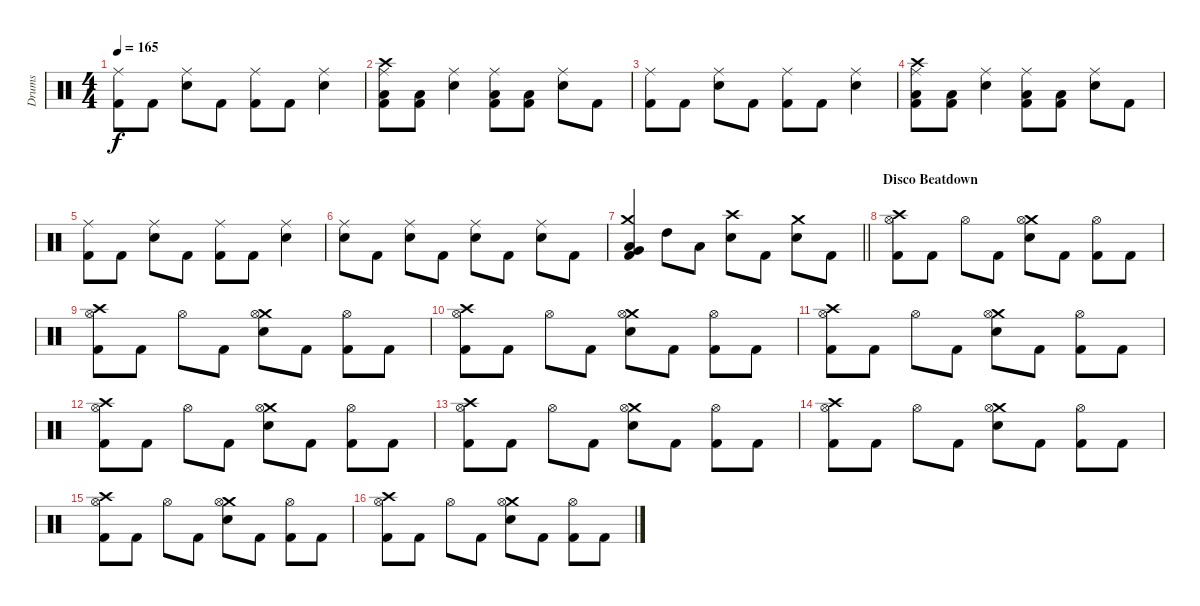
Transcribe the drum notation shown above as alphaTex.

\track ("Drums" "Drums") {instrument percussion}
\staff {score}
\articulation defaults
\ts (4 4)
\tempo 165
\clef neutral
\ks c
("Ride (middle)" "Kick (hit) 2").8{dy f} "Kick (hit) 2".8 ("Ride (middle)" "Snare (hit) 2").8 "Kick (hit) 2".8 ("Ride (middle)" "Kick (hit) 2").8 "Kick (hit) 2".8 ("Ride (middle)" "Snare (hit) 2").4 |
("Crash high (hit)" "Ride (middle)" "Low Floor Tom (hit)" "Kick (hit) 2").8 ("Low Floor Tom (hit)" "Kick (hit) 2").8 ("Ride (middle)" "Snare (hit) 2").4 ("Ride (middle)" "Low Floor Tom (hit)" "Kick (hit) 2").8 ("Low Floor Tom (hit)" "Kick (hit) 2").8 ("Ride (middle)" "Snare (hit) 2").8 "Kick (hit) 2".8 |
("Ride (middle)" "Kick (hit) 2").8 "Kick (hit) 2".8 ("Ride (middle)" "Snare (hit) 2").8 "Kick (hit) 2".8 ("Ride (middle)" "Kick (hit) 2").8 "Kick (hit) 2".8 ("Ride (middle)" "Snare (hit) 2").4 |
("Crash high (hit)" "Ride (middle)" "Low Floor Tom (hit)" "Kick (hit) 2").8 ("Low Floor Tom (hit)" "Kick (hit) 2").8 ("Ride (middle)" "Snare (hit) 2").4 ("Ride (middle)" "Low Floor Tom (hit)" "Kick (hit) 2").8 ("Low Floor Tom (hit)" "Kick (hit) 2").8 ("Ride (middle)" "Snare (hit) 2").8 "Kick (hit) 2".8 |
("Ride (middle)" "Kick (hit) 2").8 "Kick (hit) 2".8 ("Ride (middle)" "Snare (hit) 2").8 "Kick (hit) 2".8 ("Ride (middle)" "Kick (hit) 2").8 "Kick (hit) 2".8 ("Ride (middle)" "Snare (hit) 2").4 |
("Ride (middle)" "Snare (hit) 2").8 "Kick (hit) 2".8 ("Ride (middle)" "Snare (hit) 2").8 "Kick (hit) 2".8 ("Ride (middle)" "Snare (hit) 2").8 "Kick (hit) 2".8 ("Ride (middle)" "Snare (hit) 2").8 "Kick (hit) 2".8 |
\barLineRight lightlight
("Crash medium (hit)" "Very Low Tom (hit)" "Low Floor Tom (hit)" "Kick (hit) 2").4 "High Tom (hit)".8 "Low Tom (hit)".8 ("Crash high (hit)" "Snare (hit) 2").8 "Kick (hit) 2".8 ("Crash medium (hit)" "Snare (hit) 2").8 "Kick (hit) 2".8 |
\section ("" "Disco Beatdown")
("Crash high (hit)" "Hi-Hat (open)" "Kick (hit) 2").8 "Kick (hit) 2".8 "Hi-Hat (open)".8 "Kick (hit) 2".8 ("Crash medium (hit)" "Hi-Hat (open)" "Snare (hit) 2").8 "Kick (hit) 2".8 ("Hi-Hat (open)" "Kick (hit) 2").8 "Kick (hit) 2".8 |
("Crash high (hit)" "Hi-Hat (open)" "Kick (hit) 2").8 "Kick (hit) 2".8 "Hi-Hat (open)".8 "Kick (hit) 2".8 ("Crash medium (hit)" "Hi-Hat (open)" "Snare (hit) 2").8 "Kick (hit) 2".8 ("Hi-Hat (open)" "Kick (hit) 2").8 "Kick (hit) 2".8 |
("Crash high (hit)" "Hi-Hat (open)" "Kick (hit) 2").8 "Kick (hit) 2".8 "Hi-Hat (open)".8 "Kick (hit) 2".8 ("Crash medium (hit)" "Hi-Hat (open)" "Snare (hit) 2").8 "Kick (hit) 2".8 ("Hi-Hat (open)" "Kick (hit) 2").8 "Kick (hit) 2".8 |
("Crash high (hit)" "Hi-Hat (open)" "Kick (hit) 2").8 "Kick (hit) 2".8 "Hi-Hat (open)".8 "Kick (hit) 2".8 ("Crash medium (hit)" "Hi-Hat (open)" "Snare (hit) 2").8 "Kick (hit) 2".8 ("Hi-Hat (open)" "Kick (hit) 2").8 "Kick (hit) 2".8 |
("Crash high (hit)" "Hi-Hat (open)" "Kick (hit) 2").8 "Kick (hit) 2".8 "Hi-Hat (open)".8 "Kick (hit) 2".8 ("Crash medium (hit)" "Hi-Hat (open)" "Snare (hit) 2").8 "Kick (hit) 2".8 ("Hi-Hat (open)" "Kick (hit) 2").8 "Kick (hit) 2".8 |
("Crash high (hit)" "Hi-Hat (open)" "Kick (hit) 2").8 "Kick (hit) 2".8 "Hi-Hat (open)".8 "Kick (hit) 2".8 ("Crash medium (hit)" "Hi-Hat (open)" "Snare (hit) 2").8 "Kick (hit) 2".8 ("Hi-Hat (open)" "Kick (hit) 2").8 "Kick (hit) 2".8 |
("Crash high (hit)" "Hi-Hat (open)" "Kick (hit) 2").8 "Kick (hit) 2".8 "Hi-Hat (open)".8 "Kick (hit) 2".8 ("Crash medium (hit)" "Hi-Hat (open)" "Snare (hit) 2").8 "Kick (hit) 2".8 ("Hi-Hat (open)" "Kick (hit) 2").8 "Kick (hit) 2".8 |
("Crash high (hit)" "Hi-Hat (open)" "Kick (hit) 2").8 "Kick (hit) 2".8 "Hi-Hat (open)".8 "Kick (hit) 2".8 ("Crash medium (hit)" "Hi-Hat (open)" "Snare (hit) 2").8 "Kick (hit) 2".8 ("Hi-Hat (open)" "Kick (hit) 2").8 "Kick (hit) 2".8 |
("Crash high (hit)" "Hi-Hat (open)" "Kick (hit) 2").8 "Kick (hit) 2".8 "Hi-Hat (open)".8 "Kick (hit) 2".8 ("Crash medium (hit)" "Hi-Hat (open)" "Snare (hit) 2").8 "Kick (hit) 2".8 ("Hi-Hat (open)" "Kick (hit) 2").8 "Kick (hit) 2".8
